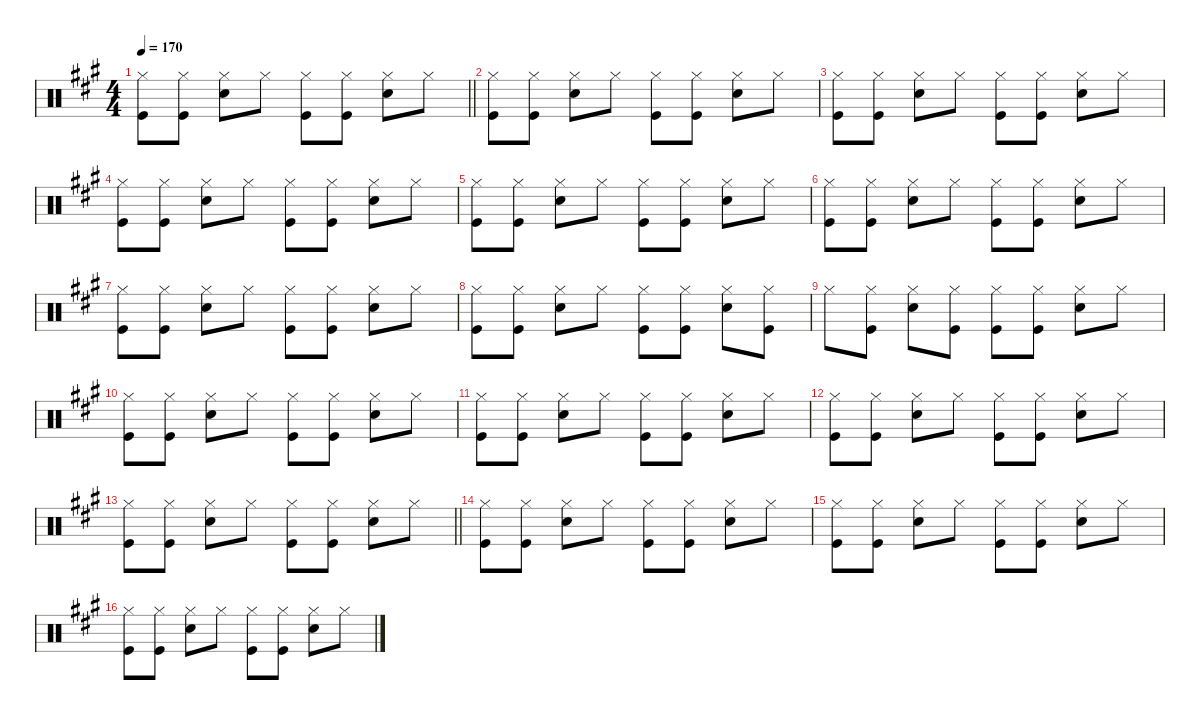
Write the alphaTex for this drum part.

\defaultSystemsLayout 4
\hideDynamics
\bracketExtendMode nobrackets
\singleTrackTrackNamePolicy hidden
\multiTrackTrackNamePolicy hidden
\firstSystemTrackNameMode fullname
\firstSystemTrackNameOrientation horizontal
\otherSystemsTrackNameOrientation horizontal
\track ("Percussion" "drm.") {defaultSystemsLayout 4 instrument percussion}
\staff {score}
\articulation defaults
\ts (4 4)
\tempo 170
\clef neutral
\barLineRight lightlight
\ks a
("Hi-Hat (closed)"{acc forcenatural} "Kick (hit)"{acc forcenatural}).8{dy f beam Down} ("Hi-Hat (closed)"{acc forcenatural} "Kick (hit)"{acc forcenatural}).8{beam Down} ("Hi-Hat (closed)"{acc forcenatural} "Snare (hit) 2"{acc forcenatural}).8{beam Down} "Hi-Hat (closed)"{acc forcenatural}.8{beam Down} ("Hi-Hat (closed)"{acc forcenatural} "Kick (hit)"{acc forcenatural}).8{beam Down} ("Hi-Hat (closed)"{acc forcenatural} "Kick (hit)"{acc forcenatural}).8{beam Down} ("Hi-Hat (closed)"{acc forcenatural} "Snare (hit) 2"{acc forcenatural}).8{beam Down} "Hi-Hat (closed)"{acc forcenatural}.8{beam Down} |
("Hi-Hat (closed)"{acc forcenatural} "Kick (hit)"{acc forcenatural}).8{beam Down} ("Hi-Hat (closed)"{acc forcenatural} "Kick (hit)"{acc forcenatural}).8{beam Down} ("Hi-Hat (closed)"{acc forcenatural} "Snare (hit) 2"{acc forcenatural}).8{beam Down} "Hi-Hat (closed)"{acc forcenatural}.8{beam Down} ("Hi-Hat (closed)"{acc forcenatural} "Kick (hit)"{acc forcenatural}).8{beam Down} ("Hi-Hat (closed)"{acc forcenatural} "Kick (hit)"{acc forcenatural}).8{beam Down} ("Hi-Hat (closed)"{acc forcenatural} "Snare (hit) 2"{acc forcenatural}).8{beam Down} "Hi-Hat (closed)"{acc forcenatural}.8{beam Down} |
("Hi-Hat (closed)"{acc forcenatural} "Kick (hit)"{acc forcenatural}).8{beam Down} ("Hi-Hat (closed)"{acc forcenatural} "Kick (hit)"{acc forcenatural}).8{beam Down} ("Hi-Hat (closed)"{acc forcenatural} "Snare (hit) 2"{acc forcenatural}).8{beam Down} "Hi-Hat (closed)"{acc forcenatural}.8{beam Down} ("Hi-Hat (closed)"{acc forcenatural} "Kick (hit)"{acc forcenatural}).8{beam Down} ("Hi-Hat (closed)"{acc forcenatural} "Kick (hit)"{acc forcenatural}).8{beam Down} ("Hi-Hat (closed)"{acc forcenatural} "Snare (hit) 2"{acc forcenatural}).8{beam Down} "Hi-Hat (closed)"{acc forcenatural}.8{beam Down} |
("Hi-Hat (closed)"{acc forcenatural} "Kick (hit)"{acc forcenatural}).8{beam Down} ("Hi-Hat (closed)"{acc forcenatural} "Kick (hit)"{acc forcenatural}).8{beam Down} ("Hi-Hat (closed)"{acc forcenatural} "Snare (hit) 2"{acc forcenatural}).8{beam Down} "Hi-Hat (closed)"{acc forcenatural}.8{beam Down} ("Hi-Hat (closed)"{acc forcenatural} "Kick (hit)"{acc forcenatural}).8{beam Down} ("Hi-Hat (closed)"{acc forcenatural} "Kick (hit)"{acc forcenatural}).8{beam Down} ("Hi-Hat (closed)"{acc forcenatural} "Snare (hit) 2"{acc forcenatural}).8{beam Down} "Hi-Hat (closed)"{acc forcenatural}.8{beam Down} |
("Hi-Hat (closed)"{acc forcenatural} "Kick (hit)"{acc forcenatural}).8{beam Down} ("Hi-Hat (closed)"{acc forcenatural} "Kick (hit)"{acc forcenatural}).8{beam Down} ("Hi-Hat (closed)"{acc forcenatural} "Snare (hit) 2"{acc forcenatural}).8{beam Down} "Hi-Hat (closed)"{acc forcenatural}.8{beam Down} ("Hi-Hat (closed)"{acc forcenatural} "Kick (hit)"{acc forcenatural}).8{beam Down} ("Hi-Hat (closed)"{acc forcenatural} "Kick (hit)"{acc forcenatural}).8{beam Down} ("Hi-Hat (closed)"{acc forcenatural} "Snare (hit) 2"{acc forcenatural}).8{beam Down} "Hi-Hat (closed)"{acc forcenatural}.8{beam Down} |
("Hi-Hat (closed)"{acc forcenatural} "Kick (hit)"{acc forcenatural}).8{beam Down} ("Hi-Hat (closed)"{acc forcenatural} "Kick (hit)"{acc forcenatural}).8{beam Down} ("Hi-Hat (closed)"{acc forcenatural} "Snare (hit) 2"{acc forcenatural}).8{beam Down} "Hi-Hat (closed)"{acc forcenatural}.8{beam Down} ("Hi-Hat (closed)"{acc forcenatural} "Kick (hit)"{acc forcenatural}).8{beam Down} ("Hi-Hat (closed)"{acc forcenatural} "Kick (hit)"{acc forcenatural}).8{beam Down} ("Hi-Hat (closed)"{acc forcenatural} "Snare (hit) 2"{acc forcenatural}).8{beam Down} "Hi-Hat (closed)"{acc forcenatural}.8{beam Down} |
("Hi-Hat (closed)"{acc forcenatural} "Kick (hit)"{acc forcenatural}).8{beam Down} ("Hi-Hat (closed)"{acc forcenatural} "Kick (hit)"{acc forcenatural}).8{beam Down} ("Hi-Hat (closed)"{acc forcenatural} "Snare (hit) 2"{acc forcenatural}).8{beam Down} "Hi-Hat (closed)"{acc forcenatural}.8{beam Down} ("Hi-Hat (closed)"{acc forcenatural} "Kick (hit)"{acc forcenatural}).8{beam Down} ("Hi-Hat (closed)"{acc forcenatural} "Kick (hit)"{acc forcenatural}).8{beam Down} ("Hi-Hat (closed)"{acc forcenatural} "Snare (hit) 2"{acc forcenatural}).8{beam Down} "Hi-Hat (closed)"{acc forcenatural}.8{beam Down} |
("Hi-Hat (closed)"{acc forcenatural} "Kick (hit)"{acc forcenatural}).8{beam Down} ("Hi-Hat (closed)"{acc forcenatural} "Kick (hit)"{acc forcenatural}).8{beam Down} ("Hi-Hat (closed)"{acc forcenatural} "Snare (hit) 2"{acc forcenatural}).8{beam Down} "Hi-Hat (closed)"{acc forcenatural}.8{beam Down} ("Hi-Hat (closed)"{acc forcenatural} "Kick (hit)"{acc forcenatural}).8{beam Down} ("Hi-Hat (closed)"{acc forcenatural} "Kick (hit)"{acc forcenatural}).8{beam Down} ("Hi-Hat (closed)"{acc forcenatural} "Snare (hit) 2"{acc forcenatural}).8{beam Down} ("Hi-Hat (closed)"{acc forcenatural} "Kick (hit)"{acc forcenatural}).8{beam Down} |
"Hi-Hat (closed)"{acc forcenatural}.8{beam Down} ("Hi-Hat (closed)"{acc forcenatural} "Kick (hit)"{acc forcenatural}).8{beam Down} ("Hi-Hat (closed)"{acc forcenatural} "Snare (hit) 2"{acc forcenatural}).8{beam Down} ("Hi-Hat (closed)"{acc forcenatural} "Kick (hit)"{acc forcenatural}).8{beam Down} ("Hi-Hat (closed)"{acc forcenatural} "Kick (hit)"{acc forcenatural}).8{beam Down} ("Hi-Hat (closed)"{acc forcenatural} "Kick (hit)"{acc forcenatural}).8{beam Down} ("Hi-Hat (closed)"{acc forcenatural} "Snare (hit) 2"{acc forcenatural}).8{beam Down} "Hi-Hat (closed)"{acc forcenatural}.8{beam Down} |
("Hi-Hat (closed)"{acc forcenatural} "Kick (hit)"{acc forcenatural}).8{beam Down} ("Hi-Hat (closed)"{acc forcenatural} "Kick (hit)"{acc forcenatural}).8{beam Down} ("Hi-Hat (closed)"{acc forcenatural} "Snare (hit) 2"{acc forcenatural}).8{beam Down} "Hi-Hat (closed)"{acc forcenatural}.8{beam Down} ("Hi-Hat (closed)"{acc forcenatural} "Kick (hit)"{acc forcenatural}).8{beam Down} ("Hi-Hat (closed)"{acc forcenatural} "Kick (hit)"{acc forcenatural}).8{beam Down} ("Hi-Hat (closed)"{acc forcenatural} "Snare (hit) 2"{acc forcenatural}).8{beam Down} "Hi-Hat (closed)"{acc forcenatural}.8{beam Down} |
("Hi-Hat (closed)"{acc forcenatural} "Kick (hit)"{acc forcenatural}).8{beam Down} ("Hi-Hat (closed)"{acc forcenatural} "Kick (hit)"{acc forcenatural}).8{beam Down} ("Hi-Hat (closed)"{acc forcenatural} "Snare (hit) 2"{acc forcenatural}).8{beam Down} "Hi-Hat (closed)"{acc forcenatural}.8{beam Down} ("Hi-Hat (closed)"{acc forcenatural} "Kick (hit)"{acc forcenatural}).8{beam Down} ("Hi-Hat (closed)"{acc forcenatural} "Kick (hit)"{acc forcenatural}).8{beam Down} ("Hi-Hat (closed)"{acc forcenatural} "Snare (hit) 2"{acc forcenatural}).8{beam Down} "Hi-Hat (closed)"{acc forcenatural}.8{beam Down} |
("Hi-Hat (closed)"{acc forcenatural} "Kick (hit)"{acc forcenatural}).8{beam Down} ("Hi-Hat (closed)"{acc forcenatural} "Kick (hit)"{acc forcenatural}).8{beam Down} ("Hi-Hat (closed)"{acc forcenatural} "Snare (hit) 2"{acc forcenatural}).8{beam Down} "Hi-Hat (closed)"{acc forcenatural}.8{beam Down} ("Hi-Hat (closed)"{acc forcenatural} "Kick (hit)"{acc forcenatural}).8{beam Down} ("Hi-Hat (closed)"{acc forcenatural} "Kick (hit)"{acc forcenatural}).8{beam Down} ("Hi-Hat (closed)"{acc forcenatural} "Snare (hit) 2"{acc forcenatural}).8{beam Down} "Hi-Hat (closed)"{acc forcenatural}.8{beam Down} |
\barLineRight lightlight
("Hi-Hat (closed)"{acc forcenatural} "Kick (hit)"{acc forcenatural}).8{beam Down} ("Hi-Hat (closed)"{acc forcenatural} "Kick (hit)"{acc forcenatural}).8{beam Down} ("Hi-Hat (closed)"{acc forcenatural} "Snare (hit) 2"{acc forcenatural}).8{beam Down} "Hi-Hat (closed)"{acc forcenatural}.8{beam Down} ("Hi-Hat (closed)"{acc forcenatural} "Kick (hit)"{acc forcenatural}).8{beam Down} ("Hi-Hat (closed)"{acc forcenatural} "Kick (hit)"{acc forcenatural}).8{beam Down} ("Hi-Hat (closed)"{acc forcenatural} "Snare (hit) 2"{acc forcenatural}).8{beam Down} "Hi-Hat (closed)"{acc forcenatural}.8{beam Down} |
("Hi-Hat (closed)"{acc forcenatural} "Kick (hit)"{acc forcenatural}).8{beam Down} ("Hi-Hat (closed)"{acc forcenatural} "Kick (hit)"{acc forcenatural}).8{beam Down} ("Hi-Hat (closed)"{acc forcenatural} "Snare (hit) 2"{acc forcenatural}).8{beam Down} "Hi-Hat (closed)"{acc forcenatural}.8{beam Down} ("Hi-Hat (closed)"{acc forcenatural} "Kick (hit)"{acc forcenatural}).8{beam Down} ("Hi-Hat (closed)"{acc forcenatural} "Kick (hit)"{acc forcenatural}).8{beam Down} ("Hi-Hat (closed)"{acc forcenatural} "Snare (hit) 2"{acc forcenatural}).8{beam Down} "Hi-Hat (closed)"{acc forcenatural}.8{beam Down} |
("Hi-Hat (closed)"{acc forcenatural} "Kick (hit)"{acc forcenatural}).8{beam Down} ("Hi-Hat (closed)"{acc forcenatural} "Kick (hit)"{acc forcenatural}).8{beam Down} ("Hi-Hat (closed)"{acc forcenatural} "Snare (hit) 2"{acc forcenatural}).8{beam Down} "Hi-Hat (closed)"{acc forcenatural}.8{beam Down} ("Hi-Hat (closed)"{acc forcenatural} "Kick (hit)"{acc forcenatural}).8{beam Down} ("Hi-Hat (closed)"{acc forcenatural} "Kick (hit)"{acc forcenatural}).8{beam Down} ("Hi-Hat (closed)"{acc forcenatural} "Snare (hit) 2"{acc forcenatural}).8{beam Down} "Hi-Hat (closed)"{acc forcenatural}.8{beam Down} |
("Hi-Hat (closed)"{acc forcenatural} "Kick (hit)"{acc forcenatural}).8{beam Down} ("Hi-Hat (closed)"{acc forcenatural} "Kick (hit)"{acc forcenatural}).8{beam Down} ("Hi-Hat (closed)"{acc forcenatural} "Snare (hit) 2"{acc forcenatural}).8{beam Down} "Hi-Hat (closed)"{acc forcenatural}.8{beam Down} ("Hi-Hat (closed)"{acc forcenatural} "Kick (hit)"{acc forcenatural}).8{beam Down} ("Hi-Hat (closed)"{acc forcenatural} "Kick (hit)"{acc forcenatural}).8{beam Down} ("Hi-Hat (closed)"{acc forcenatural} "Snare (hit) 2"{acc forcenatural}).8{beam Down} "Hi-Hat (closed)"{acc forcenatural}.8{beam Down}
